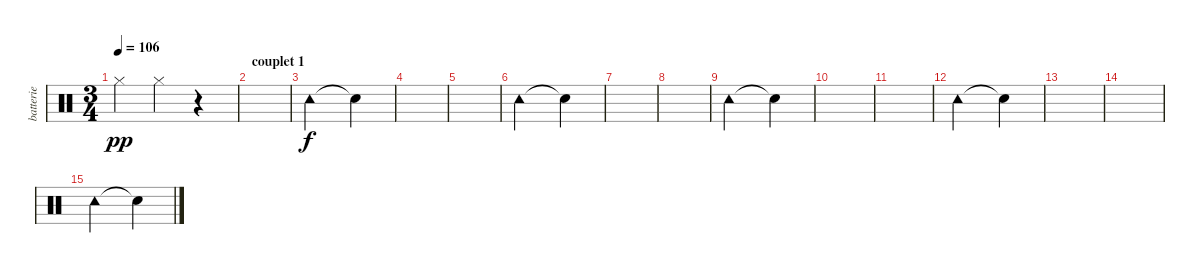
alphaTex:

\track ("batterie" "batterie") {instrument percussion}
\staff {score}
\articulation defaults
\ts (3 4)
\tempo 106
\clef neutral
\ks c "Hi-Hat (closed)".4{dy pp} "Hi-Hat (closed)".4
r.4 |
\section ("" "couplet 1")
|
"Tambourine (hit)".2{dy f} "Snare (hit)"{t}.4 |
|
|
"Tambourine (hit)".2 "Snare (hit)"{t}.4 |
|
|
"Tambourine (hit)".2 "Snare (hit)"{t}.4 |
|
|
"Tambourine (hit)".2 "Snare (hit)"{t}.4 |
|
|
"Tambourine (hit)".2 "Snare (hit)"{t}.4
